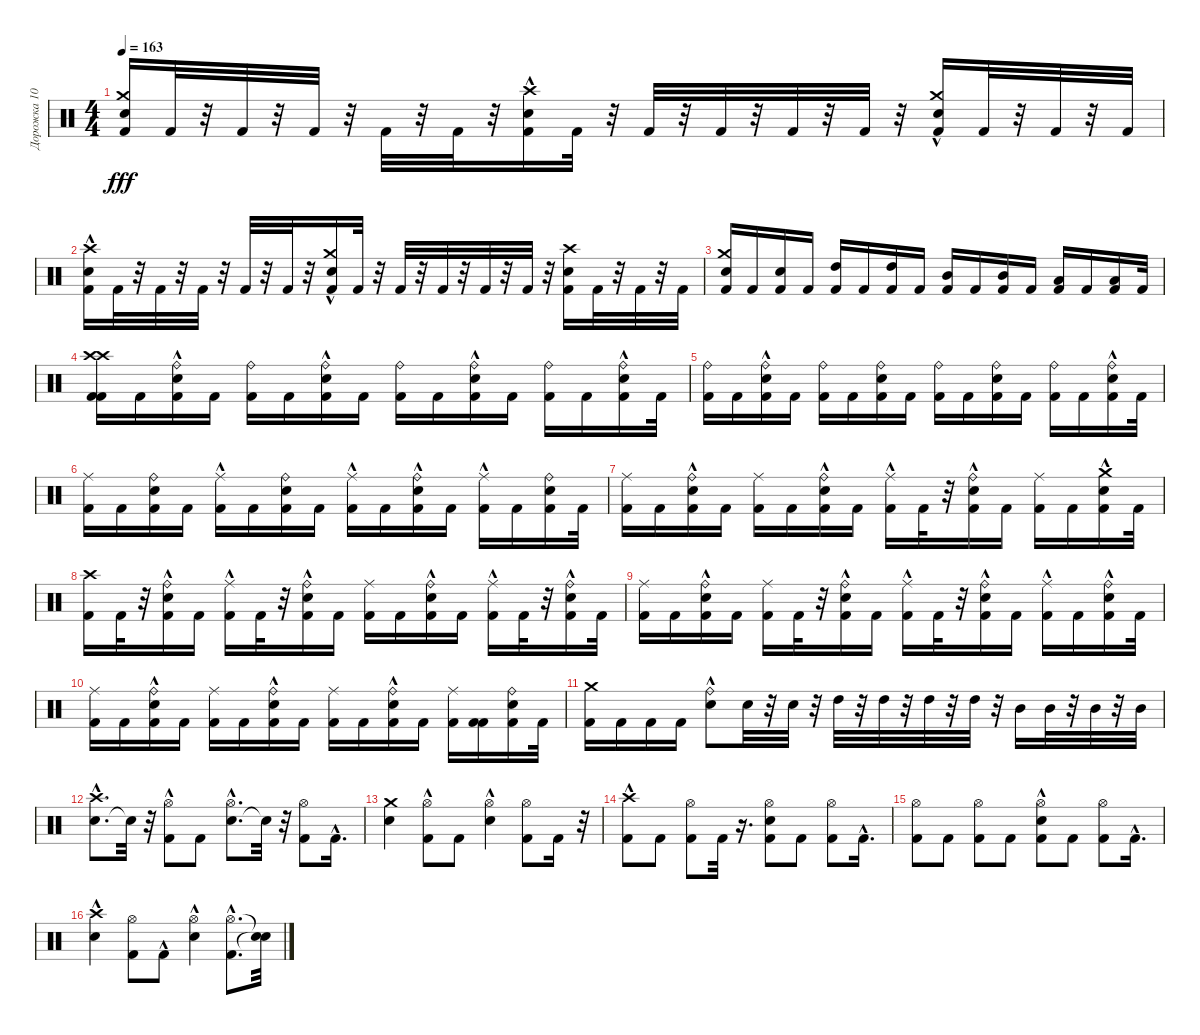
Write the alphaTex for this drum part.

\track ("Дорожка 10" "Дорожка 10") {instrument percussion}
\staff {score}
\articulation defaults
\ts (4 4)
\tempo 163
\clef neutral
\ks c
("Electric Snare (hit)" "Crash medium (hit)" "Kick (hit) 2").16{dy fff} "Kick (hit) 2".32 r.32 "Kick (hit) 2".32 r.32 "Kick (hit) 2".32 r.32 "Kick (hit) 2".32 r.32 "Kick (hit) 2".32 r.32 ("Crash high (hit)" "Electric Snare (hit)"{hac} "Kick (hit) 2").16 "Kick (hit) 2".32 r.32 "Kick (hit) 2".32 r.32 "Kick (hit) 2".32 r.32 "Kick (hit) 2".32 r.32 "Kick (hit) 2".32 r.32 ("Electric Snare (hit)" "Crash medium (hit)"{hac} "Kick (hit) 2").16 "Kick (hit) 2".32 r.32 "Kick (hit) 2".32 r.32 "Kick (hit) 2".32 |
("Electric Snare (hit)" "Crash high (hit)"{hac} "Kick (hit) 2").16 "Kick (hit) 2".32 r.32 "Kick (hit) 2".32 r.32 "Kick (hit) 2".32 r.32 "Kick (hit) 2".32 r.32 "Kick (hit) 2".32 r.32 ("Electric Snare (hit)"{hac} "Crash medium (hit)" "Kick (hit) 2").16 "Kick (hit) 2".32 r.32 "Kick (hit) 2".32 r.32 "Kick (hit) 2".32 r.32 "Kick (hit) 2".32 r.32 "Kick (hit) 2".32 r.32 ("Crash high (hit)" "Electric Snare (hit)" "Kick (hit) 2").16 "Kick (hit) 2".32 r.32 "Kick (hit) 2".32 r.32 "Kick (hit) 2".32 |
("Crash medium (hit)" "Electric Snare (hit)" "Kick (hit) 2").16 "Kick (hit) 2".16 ("Electric Snare (hit)" "Kick (hit) 2").16 "Kick (hit) 2".16 ("High Tom (hit)" "Kick (hit) 2").16 "Kick (hit) 2".16 ("High Tom (hit)" "Kick (hit) 2").16 "Kick (hit) 2".16 ("Mid Tom (hit)" "Kick (hit) 2").16 "Kick (hit) 2".16 ("Mid Tom (hit)" "Kick (hit) 2").16 "Kick (hit) 2".16 ("Low Tom (hit)" "Kick (hit) 2").16 "Kick (hit) 2".16 ("Low Tom (hit)" "Kick (hit) 2").16 "Kick (hit) 2".32 |
("Crash high (hit)" "Kick (hit) 2" "Crash high (hit)" "Kick (hit) 2").16 "Kick (hit) 2".16 ("Kick (hit) 2" "Electric Snare (hit)" "Ride (bell)"{hac}).16 "Kick (hit) 2".16 ("Kick (hit) 2" "Ride (bell)").16 "Kick (hit) 2".16 ("Kick (hit) 2" "Electric Snare (hit)"{hac} "Ride (bell)").16 "Kick (hit) 2".16 ("Kick (hit) 2" "Ride (bell)").16 "Kick (hit) 2".16 ("Kick (hit) 2" "Electric Snare (hit)"{hac} "Ride (bell)").16 "Kick (hit) 2".16 ("Kick (hit) 2" "Ride (bell)").16 "Kick (hit) 2".16 ("Kick (hit) 2" "Electric Snare (hit)"{hac} "Ride (bell)").16 "Kick (hit) 2".32 |
("Kick (hit) 2" "Ride (bell)").16 "Kick (hit) 2".16 ("Kick (hit) 2" "Electric Snare (hit)"{hac} "Ride (bell)").16 "Kick (hit) 2".16 ("Kick (hit) 2" "Ride (bell)").16 "Kick (hit) 2".16 ("Kick (hit) 2" "Electric Snare (hit)" "Ride (bell)").16 "Kick (hit) 2".16 ("Kick (hit) 2" "Ride (bell)").16 "Kick (hit) 2".16 ("Kick (hit) 2" "Electric Snare (hit)" "Ride (bell)").16 "Kick (hit) 2".16 ("Kick (hit) 2" "Ride (bell)").16 "Kick (hit) 2".16 ("Kick (hit) 2" "Electric Snare (hit)"{hac} "Ride (bell)").16 "Kick (hit) 2".32 |
("Kick (hit) 2" "Ride (middle)").16 "Kick (hit) 2".16 ("Kick (hit) 2" "Electric Snare (hit)" "Ride (bell)").16 "Kick (hit) 2".16 ("Kick (hit) 2" "Ride (middle)"{hac}).16 "Kick (hit) 2".16 ("Kick (hit) 2" "Electric Snare (hit)" "Ride (bell)").16 "Kick (hit) 2".16 ("Kick (hit) 2" "Ride (middle)"{hac}).16 "Kick (hit) 2".16 ("Kick (hit) 2" "Electric Snare (hit)"{hac} "Ride (bell)").16 "Kick (hit) 2".16 ("Kick (hit) 2" "Ride (middle)"{hac}).16 "Kick (hit) 2".16 ("Kick (hit) 2" "Electric Snare (hit)" "Ride (bell)").16 "Kick (hit) 2".32 |
("Kick (hit) 2" "Ride (middle)").16 "Kick (hit) 2".16 ("Kick (hit) 2" "Electric Snare (hit)"{hac} "Ride (bell)"{hac}).16 "Kick (hit) 2".16 ("Kick (hit) 2" "Ride (middle)").16 "Kick (hit) 2".16 ("Kick (hit) 2" "Electric Snare (hit)"{hac} "Ride (bell)"{hac}).16 "Kick (hit) 2".16 ("Kick (hit) 2" "Ride (middle)"{hac}).16 "Kick (hit) 2".32 r.32 ("Kick (hit) 2" "Electric Snare (hit)"{hac} "Ride (bell)"{hac}).16 "Kick (hit) 2".16 ("Kick (hit) 2" "Ride (middle)").16 "Kick (hit) 2".16 ("Kick (hit) 2" "Electric Snare (hit)"{hac} "Crash medium (hit)"{hac}).16 "Kick (hit) 2".32 |
("Kick (hit) 2" "Crash high (hit)").16 "Kick (hit) 2".32 r.32 ("Kick (hit) 2" "Electric Snare (hit)"{hac} "Ride (bell)").16 "Kick (hit) 2".16 ("Kick (hit) 2" "Ride (middle)"{hac}).16 "Kick (hit) 2".32 r.32 ("Kick (hit) 2" "Electric Snare (hit)"{hac} "Ride (bell)").16 "Kick (hit) 2".16 ("Kick (hit) 2" "Ride (middle)").16 "Kick (hit) 2".16 ("Kick (hit) 2" "Electric Snare (hit)"{hac} "Ride (bell)").16 "Kick (hit) 2".16 ("Kick (hit) 2" "Ride (middle)"{hac}).16 "Kick (hit) 2".32 r.32 ("Kick (hit) 2" "Electric Snare (hit)"{hac} "Ride (bell)").16 "Kick (hit) 2".32 |
("Kick (hit) 2" "Ride (middle)").16 "Kick (hit) 2".16 ("Kick (hit) 2" "Electric Snare (hit)"{hac} "Ride (bell)").16 "Kick (hit) 2".16 ("Kick (hit) 2" "Ride (middle)").16 "Kick (hit) 2".32 r.32 ("Kick (hit) 2" "Electric Snare (hit)"{hac} "Ride (bell)").16 "Kick (hit) 2".16 ("Kick (hit) 2" "Ride (middle)"{hac}).16 "Kick (hit) 2".32 r.32 ("Kick (hit) 2" "Electric Snare (hit)"{hac} "Ride (bell)").16 "Kick (hit) 2".16 ("Kick (hit) 2" "Ride (middle)"{hac}).16 "Kick (hit) 2".16 ("Kick (hit) 2" "Electric Snare (hit)"{hac} "Ride (bell)").16 "Kick (hit) 2".32 |
("Kick (hit) 2" "Ride (middle)").16 "Kick (hit) 2".16 ("Kick (hit) 2" "Electric Snare (hit)"{hac} "Ride (bell)").16 "Kick (hit) 2".16 ("Kick (hit) 2" "Ride (middle)").16 "Kick (hit) 2".16 ("Kick (hit) 2" "Electric Snare (hit)"{hac} "Ride (bell)").16 "Kick (hit) 2".16 ("Kick (hit) 2" "Ride (middle)").16 "Kick (hit) 2".16 ("Kick (hit) 2" "Electric Snare (hit)"{hac} "Ride (bell)"{hac}).16 "Kick (hit) 2".16 ("Kick (hit) 2" "Ride (middle)").16 ("Kick (hit) 2" "Kick (hit) 2").16 ("Kick (hit) 2" "Electric Snare (hit)" "Ride (bell)").16 "Kick (hit) 2".32 |
("Kick (hit) 2" "Crash medium (hit)").16 "Kick (hit) 2".16 "Kick (hit) 2".16 "Kick (hit) 2".16 ("Ride (bell)"{hac} "Electric Snare (hit)"{hac}).8 "Electric Snare (hit)".32 r.32 "Electric Snare (hit)".32 r.32 "High Tom (hit)".32 r.32 "High Tom (hit)".32 r.32 "High Tom (hit)".32 r.32 "High Tom (hit)".32 r.32 "Mid Tom (hit)".16 "Mid Tom (hit)".32 r.32 "Mid Tom (hit)".32 r.32 "Mid Tom (hit)".32 |
("Electric Snare (hit)"{hac} "Crash high (hit)").8{d} "Snare (hit)"{t}.32 r.32 ("Kick (hit) 2"{hac} "Hi-Hat (open)").8 "Kick (hit) 2".8 ("Electric Snare (hit)"{hac} "Hi-Hat (open)"{hac}).8{d} "Snare (hit)"{t}.32 r.32 ("Hi-Hat (open)" "Kick (hit) 2").8 "Kick (hit) 2"{hac}.16{d} |
("Electric Snare (hit)" "Crash medium (hit)").4 ("Hi-Hat (open)"{hac} "Kick (hit) 2").8 "Kick (hit) 2".8 ("Hi-Hat (open)"{hac} "Electric Snare (hit)").4 ("Hi-Hat (open)" "Kick (hit) 2").8 "Kick (hit) 2".16 r.32 |
("Kick (hit) 2"{hac} "Crash high (hit)").8 "Kick (hit) 2".8 ("Kick (hit) 2" "Hi-Hat (open)").8 "Kick (hit) 2".32 r.16{d} ("Kick (hit) 2" "Electric Snare (hit)" "Hi-Hat (open)").8 "Kick (hit) 2".8 ("Kick (hit) 2" "Hi-Hat (open)").8 "Kick (hit) 2"{hac}.16{d} |
("Hi-Hat (open)" "Kick (hit) 2").8 "Kick (hit) 2".8 ("Hi-Hat (open)" "Kick (hit) 2").8 "Kick (hit) 2".8 ("Hi-Hat (open)" "Kick (hit) 2" "Electric Snare (hit)"{hac}).8 "Kick (hit) 2".8 ("Hi-Hat (open)" "Kick (hit) 2").8 "Kick (hit) 2"{hac}.16{d} |
("Electric Snare (hit)"{hac} "Crash high (hit)").4 ("Kick (hit) 2" "Hi-Hat (open)").8 "Kick (hit) 2"{hac}.8 ("Electric Snare (hit)"{hac} "Hi-Hat (open)").4 ("Hi-Hat (open)"{hac} "Kick (hit) 2"{hac}).8{d} ("Snare (hit)"{t} "Snare (hit)"{t}).32
